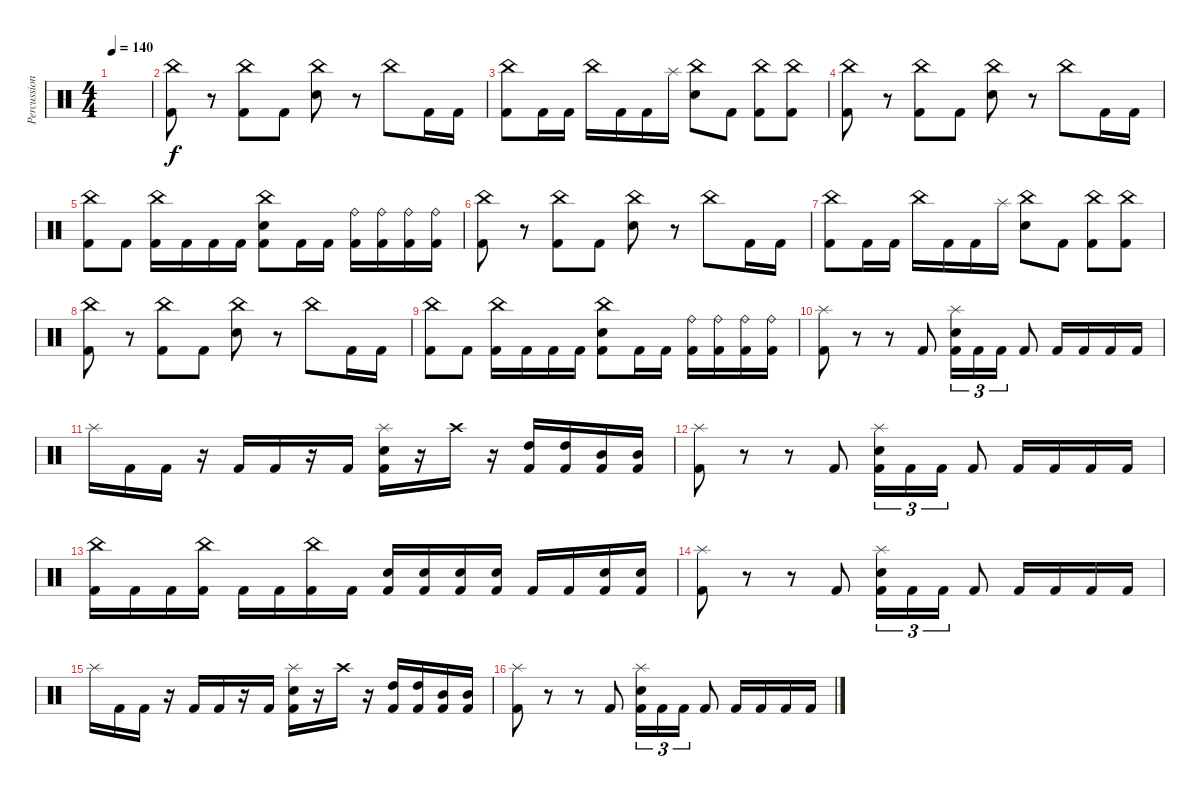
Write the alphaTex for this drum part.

\track ("Percussion" "Percussion") {instrument percussion}
\staff {score}
\articulation defaults
\ts (4 4)
\tempo 140
\clef neutral
\ks c
|
("China (hit)" "Kick (hit) 2").8 r.8 ("China (hit)" "Kick (hit) 2").8 "Kick (hit) 2".8 ("China (hit)" "Snare (hit) 2").8 r.8 "China (hit)".8 "Kick (hit) 2".16 "Kick (hit) 2".16 |
("China (hit)" "Kick (hit) 2").8 "Kick (hit) 2".16 "Kick (hit) 2".16 "China (hit)".16 "Kick (hit) 2".16 "Kick (hit) 2".16 "Splash (hit)".16 ("China (hit)" "Snare (hit) 2").8 "Kick (hit) 2".8 ("China (hit)" "Kick (hit) 2").8 ("China (hit)" "Kick (hit) 2").8 |
("China (hit)" "Kick (hit) 2").8 r.8 ("China (hit)" "Kick (hit) 2").8 "Kick (hit) 2".8 ("China (hit)" "Snare (hit) 2").8 r.8 "China (hit)".8 "Kick (hit) 2".16 "Kick (hit) 2".16 |
("China (hit)" "Kick (hit) 2").8 "Kick (hit) 2".8 ("China (hit)" "Kick (hit) 2").16 "Kick (hit) 2".16 "Kick (hit) 2".16 "Kick (hit) 2".16 ("China (hit)" "Snare (hit) 2" "Kick (hit) 2").8 "Kick (hit) 2".16 "Kick (hit) 2".16 ("Ride (bell)" "Kick (hit) 2").16 ("Ride (bell)" "Kick (hit) 2").16 ("Ride (bell)" "Kick (hit) 2").16 ("Ride (bell)" "Kick (hit) 2").16 |
("China (hit)" "Kick (hit) 2").8 r.8 ("China (hit)" "Kick (hit) 2").8 "Kick (hit) 2".8 ("China (hit)" "Snare (hit) 2").8 r.8 "China (hit)".8 "Kick (hit) 2".16 "Kick (hit) 2".16 |
("China (hit)" "Kick (hit) 2").8 "Kick (hit) 2".16 "Kick (hit) 2".16 "China (hit)".16 "Kick (hit) 2".16 "Kick (hit) 2".16 "Splash (hit)".16 ("China (hit)" "Snare (hit) 2").8 "Kick (hit) 2".8 ("China (hit)" "Kick (hit) 2").8 ("China (hit)" "Kick (hit) 2").8 |
("China (hit)" "Kick (hit) 2").8 r.8 ("China (hit)" "Kick (hit) 2").8 "Kick (hit) 2".8 ("China (hit)" "Snare (hit) 2").8 r.8 "China (hit)".8 "Kick (hit) 2".16 "Kick (hit) 2".16 |
("China (hit)" "Kick (hit) 2").8 "Kick (hit) 2".8 ("China (hit)" "Kick (hit) 2").16 "Kick (hit) 2".16 "Kick (hit) 2".16 "Kick (hit) 2".16 ("China (hit)" "Snare (hit) 2" "Kick (hit) 2").8 "Kick (hit) 2".16 "Kick (hit) 2".16 ("Ride (bell)" "Kick (hit) 2").16 ("Ride (bell)" "Kick (hit) 2").16 ("Ride (bell)" "Kick (hit) 2").16 ("Ride (bell)" "Kick (hit) 2").16 |
("Splash (hit)" "Kick (hit) 2").8 r.8 r.8 "Kick (hit) 2".8 ("Splash (hit)" "Snare (hit) 2" "Kick (hit) 2").16{tu (3 2)} "Kick (hit) 2".16{tu (3 2)} "Kick (hit) 2".16{tu (3 2)} "Kick (hit) 2".8 "Kick (hit) 2".16 "Kick (hit) 2".16 "Kick (hit) 2".16 "Kick (hit) 2".16 |
"Splash (hit)".16 "Kick (hit) 2".16 "Kick (hit) 2".16 r.16 "Kick (hit) 2".16 "Kick (hit) 2".16 r.16 "Kick (hit) 2".16 ("Splash (hit)" "Snare (hit) 2" "Kick (hit) 2").16 r.16 "Crash high (hit)".16 r.16 ("High Tom (hit)" "Kick (hit) 2").16 ("High Tom (hit)" "Kick (hit) 2").16 ("Mid Tom (hit)" "Kick (hit) 2").16 ("Mid Tom (hit)" "Kick (hit) 2").16 |
("Splash (hit)" "Kick (hit) 2").8 r.8 r.8 "Kick (hit) 2".8 ("Splash (hit)" "Snare (hit) 2" "Kick (hit) 2").16{tu (3 2)} "Kick (hit) 2".16{tu (3 2)} "Kick (hit) 2".16{tu (3 2)} "Kick (hit) 2".8 "Kick (hit) 2".16 "Kick (hit) 2".16 "Kick (hit) 2".16 "Kick (hit) 2".16 |
("China (hit)" "Kick (hit) 2").16 "Kick (hit) 2".16 "Kick (hit) 2".16 ("China (hit)" "Kick (hit) 2").16 "Kick (hit) 2".16 "Kick (hit) 2".16 ("China (hit)" "Kick (hit) 2").16 "Kick (hit) 2".16 ("Snare (hit) 2" "Kick (hit) 2").16 ("Snare (hit) 2" "Kick (hit) 2").16 ("Snare (hit) 2" "Kick (hit) 2").16 ("Snare (hit) 2" "Kick (hit) 2").16 "Kick (hit) 2".16 "Kick (hit) 2".16 ("Snare (hit) 2" "Kick (hit) 2").16 ("Snare (hit) 2" "Kick (hit) 2").16 |
("Splash (hit)" "Kick (hit) 2").8 r.8 r.8 "Kick (hit) 2".8 ("Splash (hit)" "Snare (hit) 2" "Kick (hit) 2").16{tu (3 2)} "Kick (hit) 2".16{tu (3 2)} "Kick (hit) 2".16{tu (3 2)} "Kick (hit) 2".8 "Kick (hit) 2".16 "Kick (hit) 2".16 "Kick (hit) 2".16 "Kick (hit) 2".16 |
"Splash (hit)".16 "Kick (hit) 2".16 "Kick (hit) 2".16 r.16 "Kick (hit) 2".16 "Kick (hit) 2".16 r.16 "Kick (hit) 2".16 ("Splash (hit)" "Snare (hit) 2" "Kick (hit) 2").16 r.16 "Crash high (hit)".16 r.16 ("High Tom (hit)" "Kick (hit) 2").16 ("High Tom (hit)" "Kick (hit) 2").16 ("Mid Tom (hit)" "Kick (hit) 2").16 ("Mid Tom (hit)" "Kick (hit) 2").16 |
("Splash (hit)" "Kick (hit) 2").8 r.8 r.8 "Kick (hit) 2".8 ("Splash (hit)" "Snare (hit) 2" "Kick (hit) 2").16{tu (3 2)} "Kick (hit) 2".16{tu (3 2)} "Kick (hit) 2".16{tu (3 2)} "Kick (hit) 2".8 "Kick (hit) 2".16 "Kick (hit) 2".16 "Kick (hit) 2".16 "Kick (hit) 2".16
